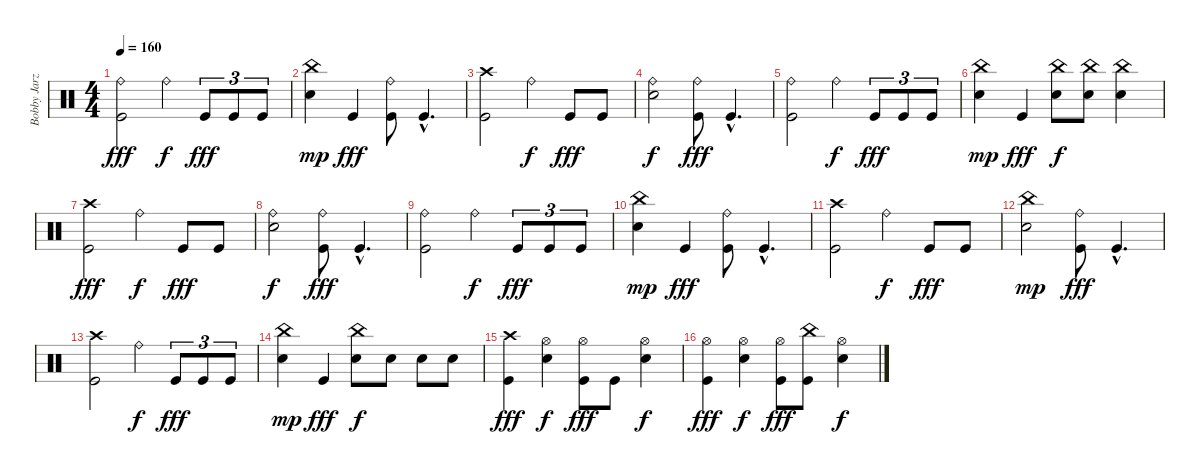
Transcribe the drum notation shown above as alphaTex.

\track ("Bobby Jarzombek" "Bobby Jarz") {instrument percussion}
\staff {score}
\articulation defaults
\ts (4 4)
\tempo 160
\clef neutral
\ks c
("Ride (bell)" "Kick (hit)").2{dy fff} "Ride (bell)".4{dy f} "Kick (hit)".8{tu (3 2) dy fff} "Kick (hit)".8{tu (3 2)} "Kick (hit)".8{tu (3 2)} |
("China (hit)" "Electric Snare (hit)").4{dy mp} "Kick (hit)".4{dy fff} ("Ride (bell)" "Kick (hit)").8 "Kick (hit)"{hac}.4{d} |
("Crash high (hit)" "Kick (hit)").2 "Ride (bell)".4{dy f} "Kick (hit)".8{dy fff} "Kick (hit)".8 |
("Ride (bell)" "Electric Snare (hit)").2{dy f} ("Ride (bell)" "Kick (hit)").8{dy fff} "Kick (hit)"{hac}.4{d} |
("Ride (bell)" "Kick (hit)").2 "Ride (bell)".4{dy f} "Kick (hit)".8{tu (3 2) dy fff} "Kick (hit)".8{tu (3 2)} "Kick (hit)".8{tu (3 2)} |
("China (hit)" "Electric Snare (hit)").4{dy mp} "Kick (hit)".4{dy fff} ("China (hit)" "Electric Snare (hit)").8{dy f} ("China (hit)" "Electric Snare (hit)").8 ("China (hit)" "Electric Snare (hit)").4 |
("Crash high (hit)" "Kick (hit)").2{dy fff} "Ride (bell)".4{dy f} "Kick (hit)".8{dy fff} "Kick (hit)".8 |
("Ride (bell)" "Electric Snare (hit)").2{dy f} ("Ride (bell)" "Kick (hit)").8{dy fff} "Kick (hit)"{hac}.4{d} |
("Ride (bell)" "Kick (hit)").2 "Ride (bell)".4{dy f} "Kick (hit)".8{tu (3 2) dy fff} "Kick (hit)".8{tu (3 2)} "Kick (hit)".8{tu (3 2)} |
("China (hit)" "Electric Snare (hit)").4{dy mp} "Kick (hit)".4{dy fff} ("Ride (bell)" "Kick (hit)").8 "Kick (hit)"{hac}.4{d} |
("Crash high (hit)" "Kick (hit)").2 "Ride (bell)".4{dy f} "Kick (hit)".8{dy fff} "Kick (hit)".8 |
("China (hit)" "Electric Snare (hit)").2{dy mp} ("Ride (bell)" "Kick (hit)").8{dy fff} "Kick (hit)"{hac}.4{d} |
("Crash high (hit)" "Kick (hit)").2 "Ride (bell)".4{dy f} "Kick (hit)".8{tu (3 2) dy fff} "Kick (hit)".8{tu (3 2)} "Kick (hit)".8{tu (3 2)} |
("China (hit)" "Electric Snare (hit)").4{dy mp} "Kick (hit)".4{dy fff} ("China (hit)" "Electric Snare (hit)").8{dy f} "Electric Snare (hit)".8 "Electric Snare (hit)".8 "Electric Snare (hit)".8 |
("Crash high (hit)" "Kick (hit)").4{dy fff} ("Hi-Hat (open)" "Electric Snare (hit)").4{dy f} ("Hi-Hat (open)" "Kick (hit)").8{dy fff} "Kick (hit)".8 ("Hi-Hat (open)" "Electric Snare (hit)").4{dy f} |
("Hi-Hat (open)" "Kick (hit)").4{dy fff} ("Hi-Hat (open)" "Electric Snare (hit)").4{dy f} ("Hi-Hat (open)" "Kick (hit)").8{dy fff} ("China (hit)" "Kick (hit)").8 ("Hi-Hat (open)" "Electric Snare (hit)").4{dy f}
